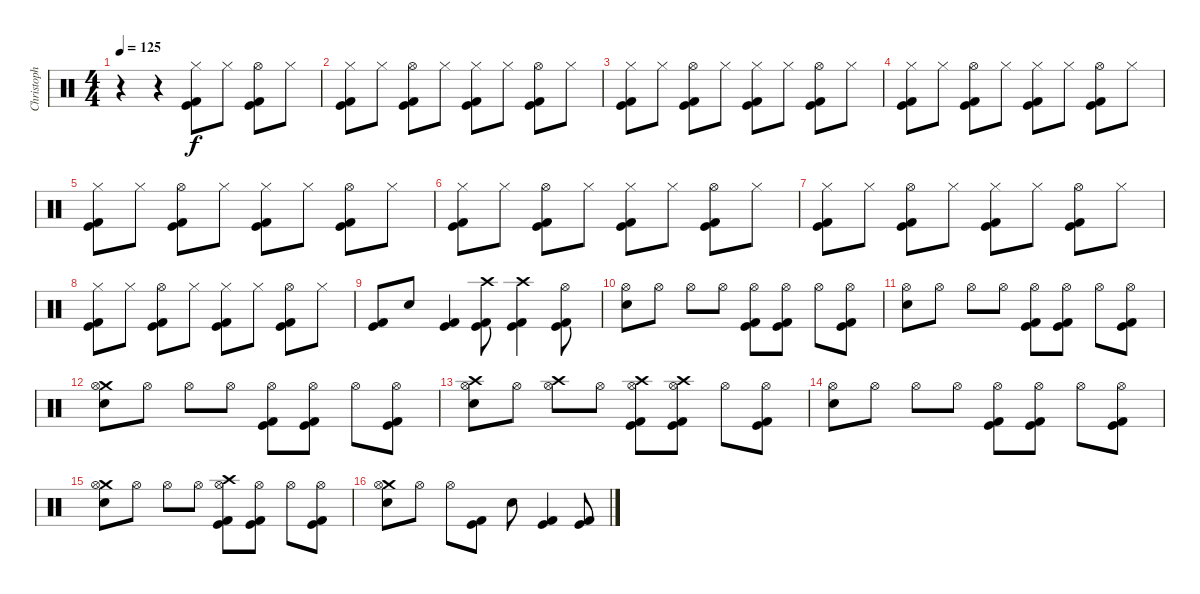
\track ("Christoph (Drums)" "Christoph ") {instrument percussion}
\staff {score}
\articulation defaults
\ts (4 4)
\tempo 125
\clef neutral
\ks c
r.4{dy f} r.4 ("Hi-Hat (closed)" "Kick (hit) 2" "Kick (hit)").8 "Hi-Hat (closed)".8 ("Hi-Hat (open)" "Kick (hit) 2" "Kick (hit)").8 "Hi-Hat (closed)".8 |
("Hi-Hat (closed)" "Kick (hit) 2" "Kick (hit)").8 "Hi-Hat (closed)".8 ("Hi-Hat (open)" "Kick (hit) 2" "Kick (hit)").8 "Hi-Hat (closed)".8 ("Hi-Hat (closed)" "Kick (hit) 2" "Kick (hit)").8 "Hi-Hat (closed)".8 ("Hi-Hat (open)" "Kick (hit) 2" "Kick (hit)").8 "Hi-Hat (closed)".8 |
("Hi-Hat (closed)" "Kick (hit) 2" "Kick (hit)").8 "Hi-Hat (closed)".8 ("Hi-Hat (open)" "Kick (hit) 2" "Kick (hit)").8 "Hi-Hat (closed)".8 ("Hi-Hat (closed)" "Kick (hit) 2" "Kick (hit)").8 "Hi-Hat (closed)".8 ("Hi-Hat (open)" "Kick (hit) 2" "Kick (hit)").8 "Hi-Hat (closed)".8 |
("Hi-Hat (closed)" "Kick (hit) 2" "Kick (hit)").8 "Hi-Hat (closed)".8 ("Hi-Hat (open)" "Kick (hit) 2" "Kick (hit)").8 "Hi-Hat (closed)".8 ("Hi-Hat (closed)" "Kick (hit) 2" "Kick (hit)").8 "Hi-Hat (closed)".8 ("Hi-Hat (open)" "Kick (hit) 2" "Kick (hit)").8 "Hi-Hat (closed)".8 |
("Hi-Hat (closed)" "Kick (hit) 2" "Kick (hit)").8 "Hi-Hat (closed)".8 ("Hi-Hat (open)" "Kick (hit) 2" "Kick (hit)").8 "Hi-Hat (closed)".8 ("Hi-Hat (closed)" "Kick (hit) 2" "Kick (hit)").8 "Hi-Hat (closed)".8 ("Hi-Hat (open)" "Kick (hit) 2" "Kick (hit)").8 "Hi-Hat (closed)".8 |
("Hi-Hat (closed)" "Kick (hit) 2" "Kick (hit)").8 "Hi-Hat (closed)".8 ("Hi-Hat (open)" "Kick (hit) 2" "Kick (hit)").8 "Hi-Hat (closed)".8 ("Hi-Hat (closed)" "Kick (hit) 2" "Kick (hit)").8 "Hi-Hat (closed)".8 ("Hi-Hat (open)" "Kick (hit) 2" "Kick (hit)").8 "Hi-Hat (closed)".8 |
("Hi-Hat (closed)" "Kick (hit) 2" "Kick (hit)").8 "Hi-Hat (closed)".8 ("Hi-Hat (open)" "Kick (hit) 2" "Kick (hit)").8 "Hi-Hat (closed)".8 ("Hi-Hat (closed)" "Kick (hit) 2" "Kick (hit)").8 "Hi-Hat (closed)".8 ("Hi-Hat (open)" "Kick (hit) 2" "Kick (hit)").8 "Hi-Hat (closed)".8 |
("Hi-Hat (closed)" "Kick (hit) 2" "Kick (hit)").8 "Hi-Hat (closed)".8 ("Hi-Hat (open)" "Kick (hit) 2" "Kick (hit)").8 "Hi-Hat (closed)".8 ("Hi-Hat (closed)" "Kick (hit) 2" "Kick (hit)").8 "Hi-Hat (closed)".8 ("Hi-Hat (open)" "Kick (hit) 2" "Kick (hit)").8 "Hi-Hat (closed)".8 |
("Kick (hit) 2" "Kick (hit)").8 "Snare (hit) 2".8 ("Kick (hit) 2" "Kick (hit)").4 ("Crash high (hit)" "Kick (hit) 2" "Kick (hit)").8 ("Crash high (hit)" "Kick (hit) 2" "Kick (hit)").4 ("Hi-Hat (open)" "Kick (hit) 2" "Kick (hit)").8 |
("Hi-Hat (open)" "Snare (hit) 2").8 "Hi-Hat (open)".8 "Hi-Hat (open)".8 "Hi-Hat (open)".8 ("Hi-Hat (open)" "Kick (hit) 2" "Kick (hit)").8 ("Hi-Hat (open)" "Kick (hit) 2" "Kick (hit)").8 "Hi-Hat (open)".8 ("Hi-Hat (open)" "Kick (hit) 2" "Kick (hit)").8 |
("Hi-Hat (open)" "Snare (hit) 2").8 "Hi-Hat (open)".8 "Hi-Hat (open)".8 "Hi-Hat (open)".8 ("Hi-Hat (open)" "Kick (hit) 2" "Kick (hit)").8 ("Hi-Hat (open)" "Kick (hit) 2" "Kick (hit)").8 "Hi-Hat (open)".8 ("Hi-Hat (open)" "Kick (hit) 2" "Kick (hit)").8 |
("Crash medium (hit)" "Hi-Hat (open)" "Snare (hit) 2").8 "Hi-Hat (open)".8 "Hi-Hat (open)".8 "Hi-Hat (open)".8 ("Hi-Hat (open)" "Kick (hit) 2" "Kick (hit)").8 ("Hi-Hat (open)" "Kick (hit) 2" "Kick (hit)").8 "Hi-Hat (open)".8 ("Hi-Hat (open)" "Kick (hit) 2" "Kick (hit)").8 |
("Crash high (hit)" "Hi-Hat (open)" "Snare (hit) 2").8 "Hi-Hat (open)".8 ("Crash high (hit)" "Hi-Hat (open)").8 "Hi-Hat (open)".8 ("Crash high (hit)" "Hi-Hat (open)" "Kick (hit) 2" "Kick (hit)").8 ("Crash high (hit)" "Hi-Hat (open)" "Kick (hit) 2" "Kick (hit)").8 "Hi-Hat (open)".8 ("Hi-Hat (open)" "Kick (hit) 2" "Kick (hit)").8 |
("Hi-Hat (open)" "Snare (hit) 2").8 "Hi-Hat (open)".8 "Hi-Hat (open)".8 "Hi-Hat (open)".8 ("Hi-Hat (open)" "Kick (hit) 2" "Kick (hit)").8 ("Hi-Hat (open)" "Kick (hit) 2" "Kick (hit)").8 "Hi-Hat (open)".8 ("Hi-Hat (open)" "Kick (hit) 2" "Kick (hit)").8 |
("Crash medium (hit)" "Hi-Hat (open)" "Snare (hit) 2").8 "Hi-Hat (open)".8 "Hi-Hat (open)".8 "Hi-Hat (open)".8 ("Crash high (hit)" "Hi-Hat (open)" "Kick (hit) 2" "Kick (hit)").8 ("Hi-Hat (open)" "Kick (hit) 2" "Kick (hit)").8 "Hi-Hat (open)".8 ("Hi-Hat (open)" "Kick (hit) 2" "Kick (hit)").8 |
("Crash medium (hit)" "Hi-Hat (open)" "Snare (hit) 2").8 "Hi-Hat (open)".8 "Hi-Hat (open)".8 ("Kick (hit) 2" "Kick (hit)").8 "Electric Snare (hit)".8 ("Kick (hit) 2" "Kick (hit)").4 ("Kick (hit) 2" "Kick (hit)").8
